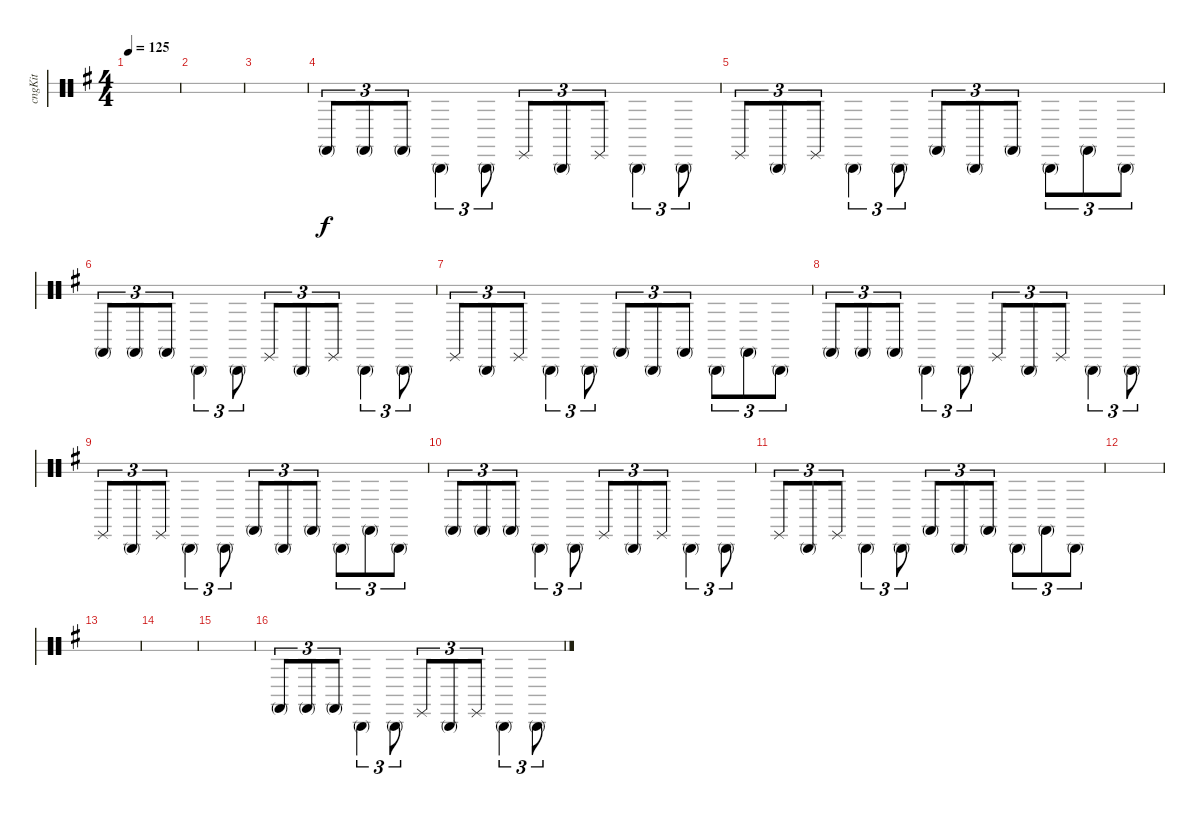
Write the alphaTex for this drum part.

\defaultSystemsLayout 4
\bracketExtendMode groupsimilarinstruments
\otherSystemsTrackNameOrientation horizontal
\track ("Congas" "cngKit") {instrument percussion}
\staff {score 2}
\articulation defaults
\ts (4 4)
\tempo 125
\clef neutral
\scale
0.333333
\ks g
|
\scale
0.333333 |
\scale
0.333333 |
\scale
0.333333 "Conga low (mute)"{acc forcenatural}.8{tu (3 2) beam Up} "Conga low (mute)"{acc forcenatural}.8{tu (3 2) beam Up} "Conga low (mute)"{acc forcenatural}.8{tu (3 2) beam Up} "Conga high (mute)"{acc forcenatural}.4{tu (3 2) beam Down} "Conga high (mute)"{acc forcenatural}.8{tu (3 2) beam Down} "Conga low (slap)"{acc forcenatural}.8{tu (3 2) beam Up} "Conga high (mute)"{acc forcenatural}.8{tu (3 2) beam Up} "Conga low (slap)"{acc forcenatural}.8{tu (3 2) beam Up} "Conga high (mute)"{acc forcenatural}.4{tu (3 2) beam Down} "Conga high (mute)"{acc forcenatural}.8{tu (3 2) beam Down} |
\scale
0.333333 "Conga low (slap)"{acc forcenatural}.8{tu (3 2) beam Up} "Conga high (mute)"{acc forcenatural}.8{tu (3 2) beam Up} "Conga low (slap)"{acc forcenatural}.8{tu (3 2) beam Up} "Conga high (mute)"{acc forcenatural}.4{tu (3 2) beam Down} "Conga high (mute)"{acc forcenatural}.8{tu (3 2) beam Down} "Conga low (mute)"{acc forcenatural}.8{tu (3 2) beam Up} "Conga high (mute)"{acc forcenatural}.8{tu (3 2) beam Up} "Conga low (mute)"{acc forcenatural}.8{tu (3 2) beam Up} "Conga high (mute)"{acc forcenatural}.8{tu (3 2) beam Down} "Conga low (mute)"{acc forcenatural}.8{tu (3 2) beam Down} "Conga high (mute)"{acc forcenatural}.8{tu (3 2) beam Down} |
\scale
0.333333 "Conga low (mute)"{acc forcenatural}.8{tu (3 2) beam Up} "Conga low (mute)"{acc forcenatural}.8{tu (3 2) beam Up} "Conga low (mute)"{acc forcenatural}.8{tu (3 2) beam Up} "Conga high (mute)"{acc forcenatural}.4{tu (3 2) beam Down} "Conga high (mute)"{acc forcenatural}.8{tu (3 2) beam Down} "Conga low (slap)"{acc forcenatural}.8{tu (3 2) beam Up} "Conga high (mute)"{acc forcenatural}.8{tu (3 2) beam Up} "Conga low (slap)"{acc forcenatural}.8{tu (3 2) beam Up} "Conga high (mute)"{acc forcenatural}.4{tu (3 2) beam Down} "Conga high (mute)"{acc forcenatural}.8{tu (3 2) beam Down} |
\scale
0.333333 "Conga low (slap)"{acc forcenatural}.8{tu (3 2) beam Up} "Conga high (mute)"{acc forcenatural}.8{tu (3 2) beam Up} "Conga low (slap)"{acc forcenatural}.8{tu (3 2) beam Up} "Conga high (mute)"{acc forcenatural}.4{tu (3 2) beam Down} "Conga high (mute)"{acc forcenatural}.8{tu (3 2) beam Down} "Conga low (mute)"{acc forcenatural}.8{tu (3 2) beam Up} "Conga high (mute)"{acc forcenatural}.8{tu (3 2) beam Up} "Conga low (mute)"{acc forcenatural}.8{tu (3 2) beam Up} "Conga high (mute)"{acc forcenatural}.8{tu (3 2) beam Down} "Conga low (mute)"{acc forcenatural}.8{tu (3 2) beam Down} "Conga high (mute)"{acc forcenatural}.8{tu (3 2) beam Down} |
\scale
0.333333 "Conga low (mute)"{acc forcenatural}.8{tu (3 2) beam Up} "Conga low (mute)"{acc forcenatural}.8{tu (3 2) beam Up} "Conga low (mute)"{acc forcenatural}.8{tu (3 2) beam Up} "Conga high (mute)"{acc forcenatural}.4{tu (3 2) beam Down} "Conga high (mute)"{acc forcenatural}.8{tu (3 2) beam Down} "Conga low (slap)"{acc forcenatural}.8{tu (3 2) beam Up} "Conga high (mute)"{acc forcenatural}.8{tu (3 2) beam Up} "Conga low (slap)"{acc forcenatural}.8{tu (3 2) beam Up} "Conga high (mute)"{acc forcenatural}.4{tu (3 2) beam Down} "Conga high (mute)"{acc forcenatural}.8{tu (3 2) beam Down} |
\scale
0.333333 "Conga low (slap)"{acc forcenatural}.8{tu (3 2) beam Up} "Conga high (mute)"{acc forcenatural}.8{tu (3 2) beam Up} "Conga low (slap)"{acc forcenatural}.8{tu (3 2) beam Up} "Conga high (mute)"{acc forcenatural}.4{tu (3 2) beam Down} "Conga high (mute)"{acc forcenatural}.8{tu (3 2) beam Down} "Conga low (mute)"{acc forcenatural}.8{tu (3 2) beam Up} "Conga high (mute)"{acc forcenatural}.8{tu (3 2) beam Up} "Conga low (mute)"{acc forcenatural}.8{tu (3 2) beam Up} "Conga high (mute)"{acc forcenatural}.8{tu (3 2) beam Down} "Conga low (mute)"{acc forcenatural}.8{tu (3 2) beam Down} "Conga high (mute)"{acc forcenatural}.8{tu (3 2) beam Down} |
\scale
0.333333 "Conga low (mute)"{acc forcenatural}.8{tu (3 2) beam Up} "Conga low (mute)"{acc forcenatural}.8{tu (3 2) beam Up} "Conga low (mute)"{acc forcenatural}.8{tu (3 2) beam Up} "Conga high (mute)"{acc forcenatural}.4{tu (3 2) beam Down} "Conga high (mute)"{acc forcenatural}.8{tu (3 2) beam Down} "Conga low (slap)"{acc forcenatural}.8{tu (3 2) beam Up} "Conga high (mute)"{acc forcenatural}.8{tu (3 2) beam Up} "Conga low (slap)"{acc forcenatural}.8{tu (3 2) beam Up} "Conga high (mute)"{acc forcenatural}.4{tu (3 2) beam Down} "Conga high (mute)"{acc forcenatural}.8{tu (3 2) beam Down} |
\scale
0.333333 "Conga low (slap)"{acc forcenatural}.8{tu (3 2) beam Up} "Conga high (mute)"{acc forcenatural}.8{tu (3 2) beam Up} "Conga low (slap)"{acc forcenatural}.8{tu (3 2) beam Up} "Conga high (mute)"{acc forcenatural}.4{tu (3 2) beam Down} "Conga high (mute)"{acc forcenatural}.8{tu (3 2) beam Down} "Conga low (mute)"{acc forcenatural}.8{tu (3 2) beam Up} "Conga high (mute)"{acc forcenatural}.8{tu (3 2) beam Up} "Conga low (mute)"{acc forcenatural}.8{tu (3 2) beam Up} "Conga high (mute)"{acc forcenatural}.8{tu (3 2) beam Down} "Conga low (mute)"{acc forcenatural}.8{tu (3 2) beam Down} "Conga high (mute)"{acc forcenatural}.8{tu (3 2) beam Down} |
\scale
0.333333 |
\scale
0.333333 |
\scale
0.333333 |
\scale
0.333333 |
\scale
0.333333 "Conga low (mute)"{acc forcenatural}.8{tu (3 2) beam Up} "Conga low (mute)"{acc forcenatural}.8{tu (3 2) beam Up} "Conga low (mute)"{acc forcenatural}.8{tu (3 2) beam Up} "Conga high (mute)"{acc forcenatural}.4{tu (3 2) beam Down} "Conga high (mute)"{acc forcenatural}.8{tu (3 2) beam Down} "Conga low (slap)"{acc forcenatural}.8{tu (3 2) beam Up} "Conga high (mute)"{acc forcenatural}.8{tu (3 2) beam Up} "Conga low (slap)"{acc forcenatural}.8{tu (3 2) beam Up} "Conga high (mute)"{acc forcenatural}.4{tu (3 2) beam Down} "Conga high (mute)"{acc forcenatural}.8{tu (3 2) beam Down}
